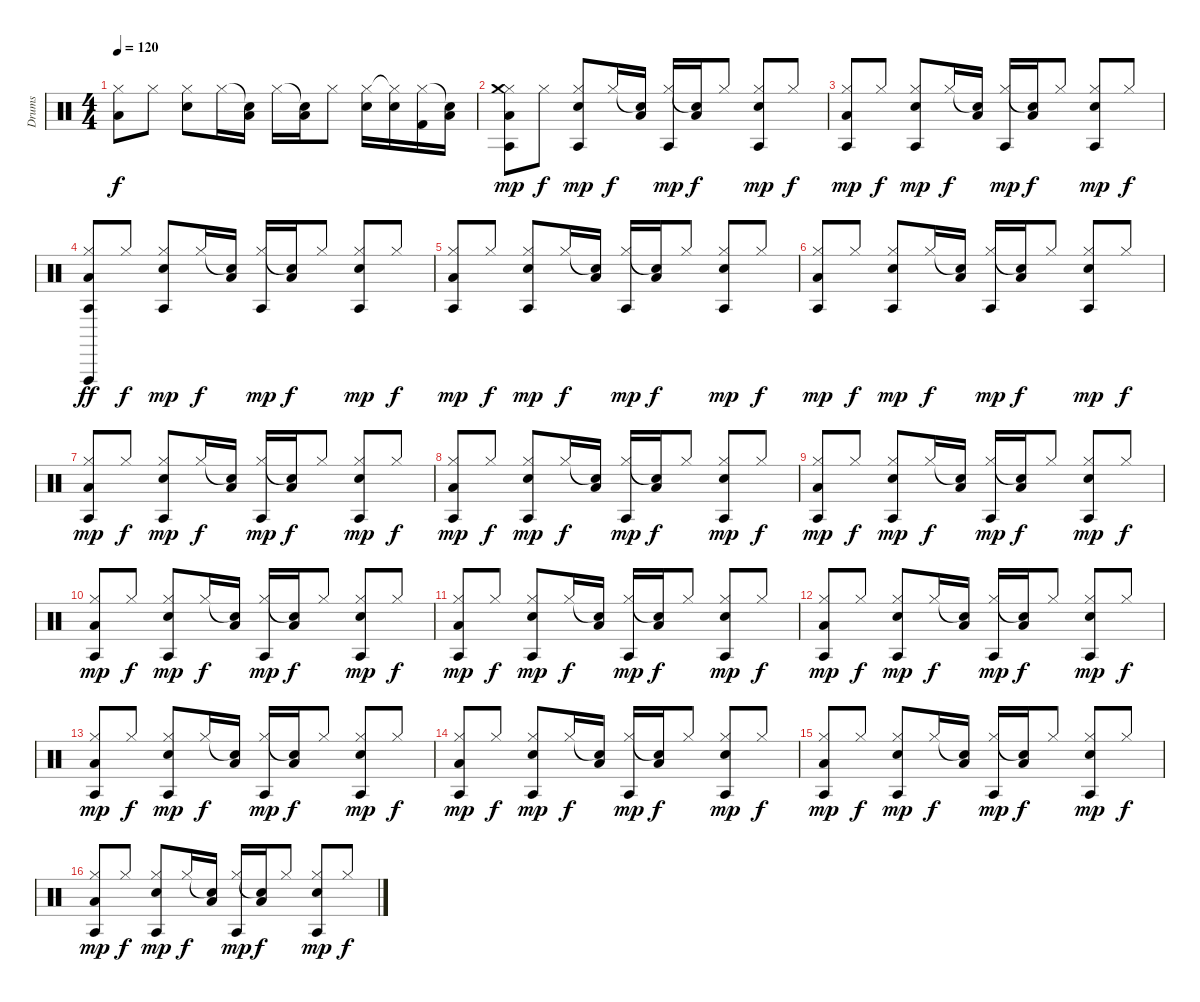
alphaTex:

\track ("Drums" "Drums") {instrument percussion}
\staff {score}
\articulation defaults
\ts (4 4)
\tempo 120
\clef neutral
\ks c
("Hi-Hat (closed)" "Low Tom (hit)").8{dy f} "Hi-Hat (closed)".8 ("Hi-Hat (closed)" "Snare (hit) 2").8 "Hi-Hat (closed)".16 ("Snare (hit)"{t} "Low Tom (hit)").16 "Hi-Hat (closed)".16 ("Snare (hit)"{t} "Low Tom (hit)").16 "Hi-Hat (closed)".8 ("Hi-Hat (closed)" "Snare (hit) 2").16 ("Hi-Hat (closed)"{t} "Snare (hit) 2").16 ("Hi-Hat (closed)" "Kick (hit) 2").16 ("Snare (hit)"{t} "Low Tom (hit)").16 |
("Hi-Hat (closed)" "Low Tom (hit)" "Agogo tow (hit)" "Crash medium (hit)").8{dy mp} "Hi-Hat (closed)".8{dy f} ("Hi-Hat (closed)" "Snare (hit) 2" "Agogo tow (hit)").8{dy mp} "Hi-Hat (closed)".16{dy f} ("Snare (hit)"{t} "Low Tom (hit)").16 ("Hi-Hat (closed)" "Agogo tow (hit)").16{dy mp} ("Snare (hit)"{t} "Low Tom (hit)").16{dy f} "Hi-Hat (closed)".8 ("Hi-Hat (closed)" "Snare (hit) 2" "Agogo tow (hit)").8{dy mp} "Hi-Hat (closed)".8{dy f} |
("Hi-Hat (closed)" "Low Tom (hit)" "Agogo tow (hit)").8{dy mp} "Hi-Hat (closed)".8{dy f} ("Hi-Hat (closed)" "Snare (hit) 2" "Agogo tow (hit)").8{dy mp} "Hi-Hat (closed)".16{dy f} ("Snare (hit)"{t} "Low Tom (hit)").16 ("Hi-Hat (closed)" "Agogo tow (hit)").16{dy mp} ("Snare (hit)"{t} "Low Tom (hit)").16{dy f} "Hi-Hat (closed)".8 ("Hi-Hat (closed)" "Snare (hit) 2" "Agogo tow (hit)").8{dy mp} "Hi-Hat (closed)".8{dy f} |
("Hi-Hat (closed)" "Low Tom (hit)" "Agogo tow (hit)" "Vibraslap (hit)").8{dy ff} "Hi-Hat (closed)".8{dy f} ("Hi-Hat (closed)" "Snare (hit) 2" "Agogo tow (hit)").8{dy mp} "Hi-Hat (closed)".16{dy f} ("Snare (hit)"{t} "Low Tom (hit)").16 ("Hi-Hat (closed)" "Agogo tow (hit)").16{dy mp} ("Snare (hit)"{t} "Low Tom (hit)").16{dy f} "Hi-Hat (closed)".8 ("Hi-Hat (closed)" "Snare (hit) 2" "Agogo tow (hit)").8{dy mp} "Hi-Hat (closed)".8{dy f} |
("Hi-Hat (closed)" "Low Tom (hit)" "Agogo tow (hit)").8{dy mp} "Hi-Hat (closed)".8{dy f} ("Hi-Hat (closed)" "Snare (hit) 2" "Agogo tow (hit)").8{dy mp} "Hi-Hat (closed)".16{dy f} ("Snare (hit)"{t} "Low Tom (hit)").16 ("Hi-Hat (closed)" "Agogo tow (hit)").16{dy mp} ("Snare (hit)"{t} "Low Tom (hit)").16{dy f} "Hi-Hat (closed)".8 ("Hi-Hat (closed)" "Snare (hit) 2" "Agogo tow (hit)").8{dy mp} "Hi-Hat (closed)".8{dy f} |
("Hi-Hat (closed)" "Low Tom (hit)" "Agogo tow (hit)").8{dy mp} "Hi-Hat (closed)".8{dy f} ("Hi-Hat (closed)" "Snare (hit) 2" "Agogo tow (hit)").8{dy mp} "Hi-Hat (closed)".16{dy f} ("Snare (hit)"{t} "Low Tom (hit)").16 ("Hi-Hat (closed)" "Agogo tow (hit)").16{dy mp} ("Snare (hit)"{t} "Low Tom (hit)").16{dy f} "Hi-Hat (closed)".8 ("Hi-Hat (closed)" "Snare (hit) 2" "Agogo tow (hit)").8{dy mp} "Hi-Hat (closed)".8{dy f} |
("Hi-Hat (closed)" "Low Tom (hit)" "Agogo tow (hit)").8{dy mp} "Hi-Hat (closed)".8{dy f} ("Hi-Hat (closed)" "Snare (hit) 2" "Agogo tow (hit)").8{dy mp} "Hi-Hat (closed)".16{dy f} ("Snare (hit)"{t} "Low Tom (hit)").16 ("Hi-Hat (closed)" "Agogo tow (hit)").16{dy mp} ("Snare (hit)"{t} "Low Tom (hit)").16{dy f} "Hi-Hat (closed)".8 ("Hi-Hat (closed)" "Snare (hit) 2" "Agogo tow (hit)").8{dy mp} "Hi-Hat (closed)".8{dy f} |
("Hi-Hat (closed)" "Low Tom (hit)" "Agogo tow (hit)").8{dy mp} "Hi-Hat (closed)".8{dy f} ("Hi-Hat (closed)" "Snare (hit) 2" "Agogo tow (hit)").8{dy mp} "Hi-Hat (closed)".16{dy f} ("Snare (hit)"{t} "Low Tom (hit)").16 ("Hi-Hat (closed)" "Agogo tow (hit)").16{dy mp} ("Snare (hit)"{t} "Low Tom (hit)").16{dy f} "Hi-Hat (closed)".8 ("Hi-Hat (closed)" "Snare (hit) 2" "Agogo tow (hit)").8{dy mp} "Hi-Hat (closed)".8{dy f} |
("Hi-Hat (closed)" "Low Tom (hit)" "Agogo tow (hit)").8{dy mp} "Hi-Hat (closed)".8{dy f} ("Hi-Hat (closed)" "Snare (hit) 2" "Agogo tow (hit)").8{dy mp} "Hi-Hat (closed)".16{dy f} ("Snare (hit)"{t} "Low Tom (hit)").16 ("Hi-Hat (closed)" "Agogo tow (hit)").16{dy mp} ("Snare (hit)"{t} "Low Tom (hit)").16{dy f} "Hi-Hat (closed)".8 ("Hi-Hat (closed)" "Snare (hit) 2" "Agogo tow (hit)").8{dy mp} "Hi-Hat (closed)".8{dy f} |
("Hi-Hat (closed)" "Low Tom (hit)" "Agogo tow (hit)").8{dy mp} "Hi-Hat (closed)".8{dy f} ("Hi-Hat (closed)" "Snare (hit) 2" "Agogo tow (hit)").8{dy mp} "Hi-Hat (closed)".16{dy f} ("Snare (hit)"{t} "Low Tom (hit)").16 ("Hi-Hat (closed)" "Agogo tow (hit)").16{dy mp} ("Snare (hit)"{t} "Low Tom (hit)").16{dy f} "Hi-Hat (closed)".8 ("Hi-Hat (closed)" "Snare (hit) 2" "Agogo tow (hit)").8{dy mp} "Hi-Hat (closed)".8{dy f} |
("Hi-Hat (closed)" "Low Tom (hit)" "Agogo tow (hit)").8{dy mp} "Hi-Hat (closed)".8{dy f} ("Hi-Hat (closed)" "Snare (hit) 2" "Agogo tow (hit)").8{dy mp} "Hi-Hat (closed)".16{dy f} ("Snare (hit)"{t} "Low Tom (hit)").16 ("Hi-Hat (closed)" "Agogo tow (hit)").16{dy mp} ("Snare (hit)"{t} "Low Tom (hit)").16{dy f} "Hi-Hat (closed)".8 ("Hi-Hat (closed)" "Snare (hit) 2" "Agogo tow (hit)").8{dy mp} "Hi-Hat (closed)".8{dy f} |
("Hi-Hat (closed)" "Low Tom (hit)" "Agogo tow (hit)").8{dy mp} "Hi-Hat (closed)".8{dy f} ("Hi-Hat (closed)" "Snare (hit) 2" "Agogo tow (hit)").8{dy mp} "Hi-Hat (closed)".16{dy f} ("Snare (hit)"{t} "Low Tom (hit)").16 ("Hi-Hat (closed)" "Agogo tow (hit)").16{dy mp} ("Snare (hit)"{t} "Low Tom (hit)").16{dy f} "Hi-Hat (closed)".8 ("Hi-Hat (closed)" "Snare (hit) 2" "Agogo tow (hit)").8{dy mp} "Hi-Hat (closed)".8{dy f} |
("Hi-Hat (closed)" "Low Tom (hit)" "Agogo tow (hit)").8{dy mp} "Hi-Hat (closed)".8{dy f} ("Hi-Hat (closed)" "Snare (hit) 2" "Agogo tow (hit)").8{dy mp} "Hi-Hat (closed)".16{dy f} ("Snare (hit)"{t} "Low Tom (hit)").16 ("Hi-Hat (closed)" "Agogo tow (hit)").16{dy mp} ("Snare (hit)"{t} "Low Tom (hit)").16{dy f} "Hi-Hat (closed)".8 ("Hi-Hat (closed)" "Snare (hit) 2" "Agogo tow (hit)").8{dy mp} "Hi-Hat (closed)".8{dy f} |
("Hi-Hat (closed)" "Low Tom (hit)" "Agogo tow (hit)").8{dy mp} "Hi-Hat (closed)".8{dy f} ("Hi-Hat (closed)" "Snare (hit) 2" "Agogo tow (hit)").8{dy mp} "Hi-Hat (closed)".16{dy f} ("Snare (hit)"{t} "Low Tom (hit)").16 ("Hi-Hat (closed)" "Agogo tow (hit)").16{dy mp} ("Snare (hit)"{t} "Low Tom (hit)").16{dy f} "Hi-Hat (closed)".8 ("Hi-Hat (closed)" "Snare (hit) 2" "Agogo tow (hit)").8{dy mp} "Hi-Hat (closed)".8{dy f} |
("Hi-Hat (closed)" "Low Tom (hit)" "Agogo tow (hit)").8{dy mp} "Hi-Hat (closed)".8{dy f} ("Hi-Hat (closed)" "Snare (hit) 2" "Agogo tow (hit)").8{dy mp} "Hi-Hat (closed)".16{dy f} ("Snare (hit)"{t} "Low Tom (hit)").16 ("Hi-Hat (closed)" "Agogo tow (hit)").16{dy mp} ("Snare (hit)"{t} "Low Tom (hit)").16{dy f} "Hi-Hat (closed)".8 ("Hi-Hat (closed)" "Snare (hit) 2" "Agogo tow (hit)").8{dy mp} "Hi-Hat (closed)".8{dy f} |
("Hi-Hat (closed)" "Low Tom (hit)" "Agogo tow (hit)").8{dy mp} "Hi-Hat (closed)".8{dy f} ("Hi-Hat (closed)" "Snare (hit) 2" "Agogo tow (hit)").8{dy mp} "Hi-Hat (closed)".16{dy f} ("Snare (hit)"{t} "Low Tom (hit)").16 ("Hi-Hat (closed)" "Agogo tow (hit)").16{dy mp} ("Snare (hit)"{t} "Low Tom (hit)").16{dy f} "Hi-Hat (closed)".8 ("Hi-Hat (closed)" "Snare (hit) 2" "Agogo tow (hit)").8{dy mp} "Hi-Hat (closed)".8{dy f}
